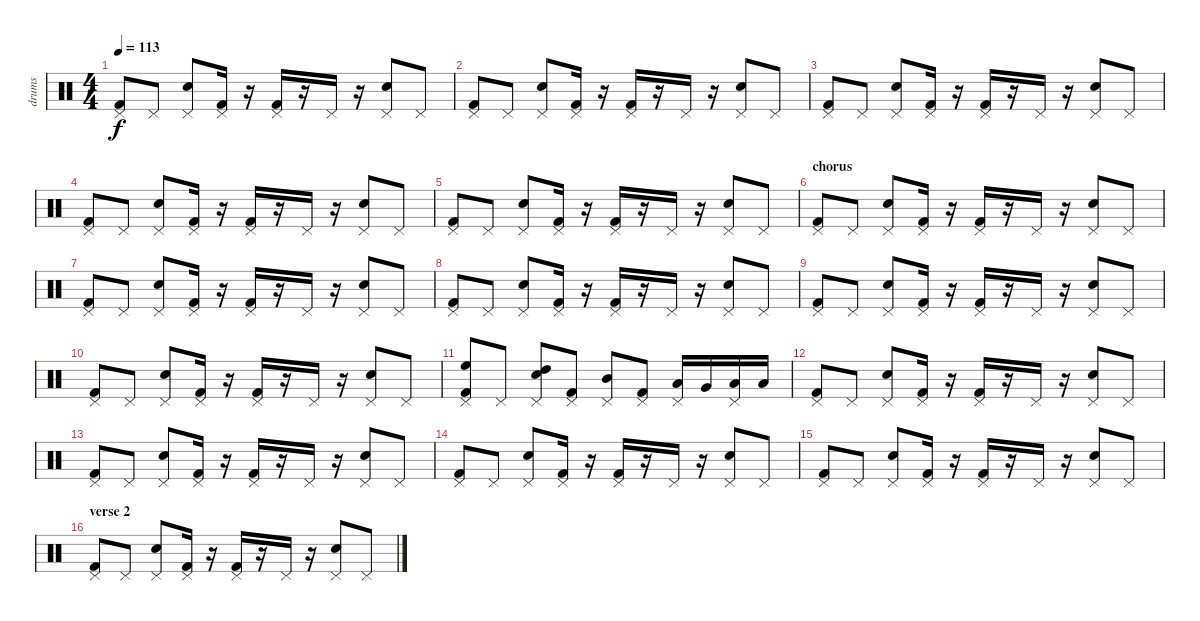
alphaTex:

\track ("drums" "drums") {instrument percussion}
\staff {score}
\articulation defaults
\ts (4 4)
\tempo 113
\clef neutral
\ks c
("Kick (hit) 2" "Pedal Hi-Hat (hit)").8{dy f} "Pedal Hi-Hat (hit)".8 ("Snare (hit) 2" "Pedal Hi-Hat (hit)").8 ("Kick (hit) 2" "Pedal Hi-Hat (hit)").16 r.16 ("Kick (hit) 2" "Pedal Hi-Hat (hit)").16 r.16 "Pedal Hi-Hat (hit)".16 r.16 ("Snare (hit) 2" "Pedal Hi-Hat (hit)").8 "Pedal Hi-Hat (hit)".8 |
("Kick (hit) 2" "Pedal Hi-Hat (hit)").8 "Pedal Hi-Hat (hit)".8 ("Snare (hit) 2" "Pedal Hi-Hat (hit)").8 ("Kick (hit) 2" "Pedal Hi-Hat (hit)").16 r.16 ("Kick (hit) 2" "Pedal Hi-Hat (hit)").16 r.16 "Pedal Hi-Hat (hit)".16 r.16 ("Snare (hit) 2" "Pedal Hi-Hat (hit)").8 "Pedal Hi-Hat (hit)".8 |
("Kick (hit) 2" "Pedal Hi-Hat (hit)").8 "Pedal Hi-Hat (hit)".8 ("Snare (hit) 2" "Pedal Hi-Hat (hit)").8 ("Kick (hit) 2" "Pedal Hi-Hat (hit)").16 r.16 ("Kick (hit) 2" "Pedal Hi-Hat (hit)").16 r.16 "Pedal Hi-Hat (hit)".16 r.16 ("Snare (hit) 2" "Pedal Hi-Hat (hit)").8 "Pedal Hi-Hat (hit)".8 |
("Kick (hit) 2" "Pedal Hi-Hat (hit)").8 "Pedal Hi-Hat (hit)".8 ("Snare (hit) 2" "Pedal Hi-Hat (hit)").8 ("Kick (hit) 2" "Pedal Hi-Hat (hit)").16 r.16 ("Kick (hit) 2" "Pedal Hi-Hat (hit)").16 r.16 "Pedal Hi-Hat (hit)".16 r.16 ("Snare (hit) 2" "Pedal Hi-Hat (hit)").8 "Pedal Hi-Hat (hit)".8 |
("Kick (hit) 2" "Pedal Hi-Hat (hit)").8 "Pedal Hi-Hat (hit)".8 ("Snare (hit) 2" "Pedal Hi-Hat (hit)").8 ("Kick (hit) 2" "Pedal Hi-Hat (hit)").16 r.16 ("Kick (hit) 2" "Pedal Hi-Hat (hit)").16 r.16 "Pedal Hi-Hat (hit)".16 r.16 ("Snare (hit) 2" "Pedal Hi-Hat (hit)").8 "Pedal Hi-Hat (hit)".8 |
\section ("" "chorus")
("Kick (hit) 2" "Pedal Hi-Hat (hit)").8 "Pedal Hi-Hat (hit)".8 ("Snare (hit) 2" "Pedal Hi-Hat (hit)").8 ("Kick (hit) 2" "Pedal Hi-Hat (hit)").16 r.16 ("Kick (hit) 2" "Pedal Hi-Hat (hit)").16 r.16 "Pedal Hi-Hat (hit)".16 r.16 ("Snare (hit) 2" "Pedal Hi-Hat (hit)").8 "Pedal Hi-Hat (hit)".8 |
("Kick (hit) 2" "Pedal Hi-Hat (hit)").8 "Pedal Hi-Hat (hit)".8 ("Snare (hit) 2" "Pedal Hi-Hat (hit)").8 ("Kick (hit) 2" "Pedal Hi-Hat (hit)").16 r.16 ("Kick (hit) 2" "Pedal Hi-Hat (hit)").16 r.16 "Pedal Hi-Hat (hit)".16 r.16 ("Snare (hit) 2" "Pedal Hi-Hat (hit)").8 "Pedal Hi-Hat (hit)".8 |
("Kick (hit) 2" "Pedal Hi-Hat (hit)").8 "Pedal Hi-Hat (hit)".8 ("Snare (hit) 2" "Pedal Hi-Hat (hit)").8 ("Kick (hit) 2" "Pedal Hi-Hat (hit)").16 r.16 ("Kick (hit) 2" "Pedal Hi-Hat (hit)").16 r.16 "Pedal Hi-Hat (hit)".16 r.16 ("Snare (hit) 2" "Pedal Hi-Hat (hit)").8 "Pedal Hi-Hat (hit)".8 |
("Kick (hit) 2" "Pedal Hi-Hat (hit)").8 "Pedal Hi-Hat (hit)".8 ("Snare (hit) 2" "Pedal Hi-Hat (hit)").8 ("Kick (hit) 2" "Pedal Hi-Hat (hit)").16 r.16 ("Kick (hit) 2" "Pedal Hi-Hat (hit)").16 r.16 "Pedal Hi-Hat (hit)".16 r.16 ("Snare (hit) 2" "Pedal Hi-Hat (hit)").8 "Pedal Hi-Hat (hit)".8 |
("Kick (hit) 2" "Pedal Hi-Hat (hit)").8 "Pedal Hi-Hat (hit)".8 ("Snare (hit) 2" "Pedal Hi-Hat (hit)").8 ("Kick (hit) 2" "Pedal Hi-Hat (hit)").16 r.16 ("Kick (hit) 2" "Pedal Hi-Hat (hit)").16 r.16 "Pedal Hi-Hat (hit)".16 r.16 ("Snare (hit) 2" "Pedal Hi-Hat (hit)").8 "Pedal Hi-Hat (hit)".8 |
("Kick (hit) 2" "Pedal Hi-Hat (hit)" "High Floor Tom (hit)").8 "Pedal Hi-Hat (hit)".8 ("Snare (hit) 2" "Pedal Hi-Hat (hit)" "High Tom (hit)").8 ("Kick (hit) 2" "Pedal Hi-Hat (hit)").8 ("Pedal Hi-Hat (hit)" "Mid Tom (hit)").8 ("Kick (hit) 2" "Pedal Hi-Hat (hit)").8 ("Pedal Hi-Hat (hit)" "Low Tom (hit)").16 "Very Low Tom (hit)".16 ("Pedal Hi-Hat (hit)" "Low Floor Tom (hit)").16 "Low Floor Tom (hit)".16 |
("Kick (hit) 2" "Pedal Hi-Hat (hit)").8 "Pedal Hi-Hat (hit)".8 ("Snare (hit) 2" "Pedal Hi-Hat (hit)").8 ("Kick (hit) 2" "Pedal Hi-Hat (hit)").16 r.16 ("Kick (hit) 2" "Pedal Hi-Hat (hit)").16 r.16 "Pedal Hi-Hat (hit)".16 r.16 ("Snare (hit) 2" "Pedal Hi-Hat (hit)").8 "Pedal Hi-Hat (hit)".8 |
("Kick (hit) 2" "Pedal Hi-Hat (hit)").8 "Pedal Hi-Hat (hit)".8 ("Snare (hit) 2" "Pedal Hi-Hat (hit)").8 ("Kick (hit) 2" "Pedal Hi-Hat (hit)").16 r.16 ("Kick (hit) 2" "Pedal Hi-Hat (hit)").16 r.16 "Pedal Hi-Hat (hit)".16 r.16 ("Snare (hit) 2" "Pedal Hi-Hat (hit)").8 "Pedal Hi-Hat (hit)".8 |
("Kick (hit) 2" "Pedal Hi-Hat (hit)").8 "Pedal Hi-Hat (hit)".8 ("Snare (hit) 2" "Pedal Hi-Hat (hit)").8 ("Kick (hit) 2" "Pedal Hi-Hat (hit)").16 r.16 ("Kick (hit) 2" "Pedal Hi-Hat (hit)").16 r.16 "Pedal Hi-Hat (hit)".16 r.16 ("Snare (hit) 2" "Pedal Hi-Hat (hit)").8 "Pedal Hi-Hat (hit)".8 |
("Kick (hit) 2" "Pedal Hi-Hat (hit)").8 "Pedal Hi-Hat (hit)".8 ("Snare (hit) 2" "Pedal Hi-Hat (hit)").8 ("Kick (hit) 2" "Pedal Hi-Hat (hit)").16 r.16 ("Kick (hit) 2" "Pedal Hi-Hat (hit)").16 r.16 "Pedal Hi-Hat (hit)".16 r.16 ("Snare (hit) 2" "Pedal Hi-Hat (hit)").8 "Pedal Hi-Hat (hit)".8 |
\section ("" "verse 2")
("Kick (hit) 2" "Pedal Hi-Hat (hit)").8 "Pedal Hi-Hat (hit)".8 ("Snare (hit) 2" "Pedal Hi-Hat (hit)").8 ("Kick (hit) 2" "Pedal Hi-Hat (hit)").16 r.16 ("Kick (hit) 2" "Pedal Hi-Hat (hit)").16 r.16 "Pedal Hi-Hat (hit)".16 r.16 ("Snare (hit) 2" "Pedal Hi-Hat (hit)").8 "Pedal Hi-Hat (hit)".8
